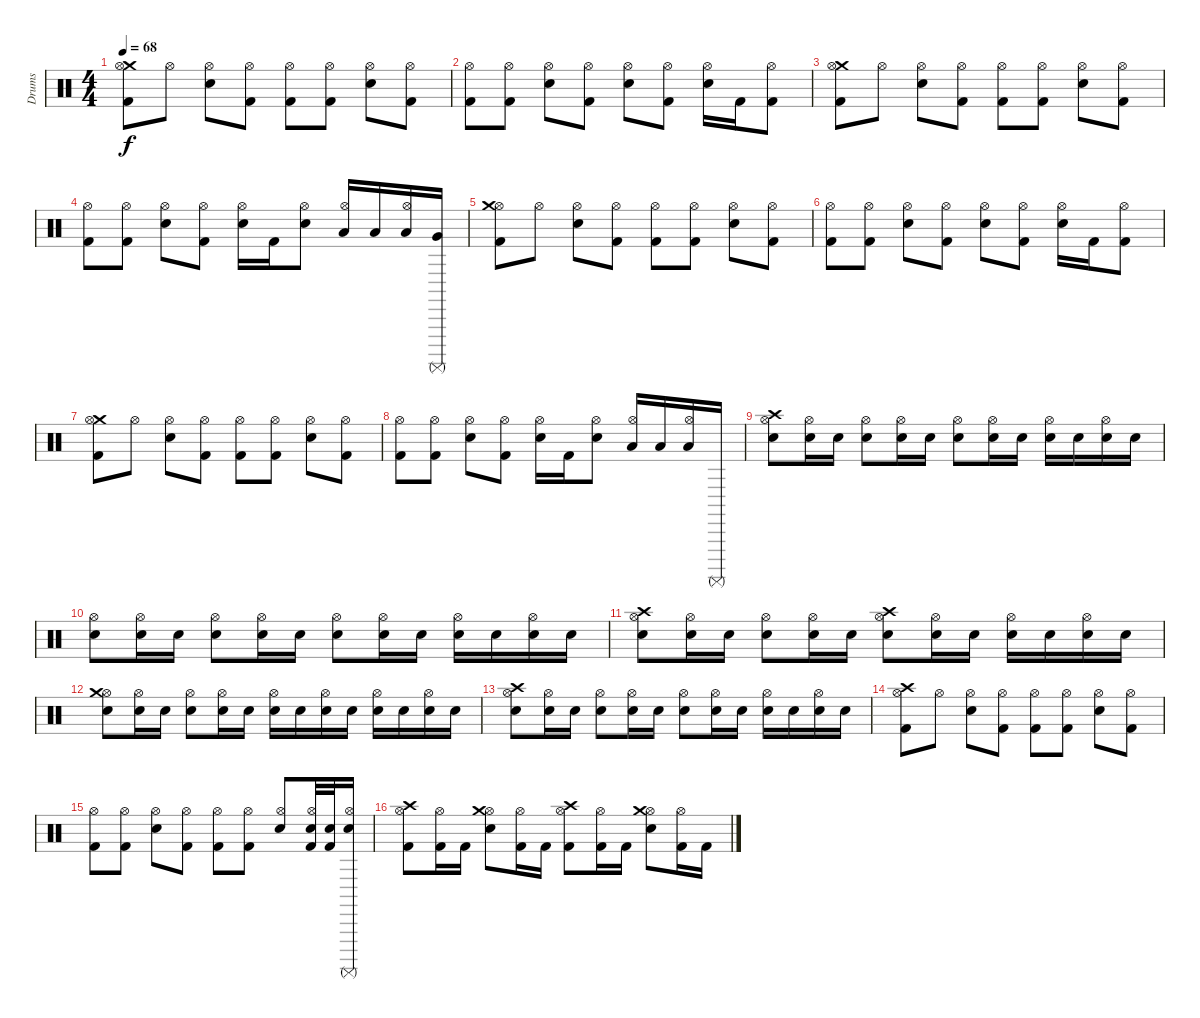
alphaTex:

\track ("Drums" "Drums") {instrument percussion}
\staff {score}
\articulation defaults
\ts (4 4)
\tempo 68
\clef neutral
\ks c
("Kick (hit) 2" "Crash medium (hit)" "Hi-Hat (open)").8{dy f} "Hi-Hat (open)".8 ("Snare (hit) 2" "Hi-Hat (open)").8 ("Kick (hit) 2" "Hi-Hat (open)").8 ("Kick (hit) 2" "Hi-Hat (open)").8 ("Kick (hit) 2" "Hi-Hat (open)").8 ("Snare (hit) 2" "Hi-Hat (open)").8 ("Kick (hit) 2" "Hi-Hat (open)").8 |
("Kick (hit) 2" "Hi-Hat (open)").8 ("Kick (hit) 2" "Hi-Hat (open)").8 ("Snare (hit) 2" "Hi-Hat (open)").8 ("Kick (hit) 2" "Hi-Hat (open)").8 ("Snare (hit) 2" "Hi-Hat (open)").8 ("Kick (hit) 2" "Hi-Hat (open)").8 ("Snare (hit) 2" "Hi-Hat (open)").16 "Kick (hit) 2".16 ("Kick (hit) 2" "Hi-Hat (open)").8 |
("Kick (hit) 2" "Crash medium (hit)" "Hi-Hat (open)").8 "Hi-Hat (open)".8 ("Snare (hit) 2" "Hi-Hat (open)").8 ("Kick (hit) 2" "Hi-Hat (open)").8 ("Kick (hit) 2" "Hi-Hat (open)").8 ("Kick (hit) 2" "Hi-Hat (open)").8 ("Snare (hit) 2" "Hi-Hat (open)").8 ("Kick (hit) 2" "Hi-Hat (open)").8 |
("Kick (hit) 2" "Hi-Hat (open)").8 ("Kick (hit) 2" "Hi-Hat (open)").8 ("Snare (hit) 2" "Hi-Hat (open)").8 ("Kick (hit) 2" "Hi-Hat (open)").8 ("Snare (hit) 2" "Hi-Hat (open)").16 "Kick (hit) 2".16 ("Snare (hit) 2" "Hi-Hat (open)").8 ("Low Tom (hit)" "Hi-Hat (open)").16 "Low Tom (hit)".16 ("Low Tom (hit)" "Hi-Hat (open)").16 ("Very Low Tom (hit)" "Surdo (mute)").16 |
("Kick (hit) 2" "Hi-Hat (open)" "Crash medium (hit)").8 "Hi-Hat (open)".8 ("Snare (hit) 2" "Hi-Hat (open)").8 ("Kick (hit) 2" "Hi-Hat (open)").8 ("Kick (hit) 2" "Hi-Hat (open)").8 ("Kick (hit) 2" "Hi-Hat (open)").8 ("Snare (hit) 2" "Hi-Hat (open)").8 ("Kick (hit) 2" "Hi-Hat (open)").8 |
("Kick (hit) 2" "Hi-Hat (open)").8 ("Kick (hit) 2" "Hi-Hat (open)").8 ("Snare (hit) 2" "Hi-Hat (open)").8 ("Kick (hit) 2" "Hi-Hat (open)").8 ("Snare (hit) 2" "Hi-Hat (open)").8 ("Kick (hit) 2" "Hi-Hat (open)").8 ("Snare (hit) 2" "Hi-Hat (open)").16 "Kick (hit) 2".16 ("Kick (hit) 2" "Hi-Hat (open)").8 |
("Kick (hit) 2" "Crash medium (hit)" "Hi-Hat (open)").8 "Hi-Hat (open)".8 ("Snare (hit) 2" "Hi-Hat (open)").8 ("Kick (hit) 2" "Hi-Hat (open)").8 ("Kick (hit) 2" "Hi-Hat (open)").8 ("Kick (hit) 2" "Hi-Hat (open)").8 ("Snare (hit) 2" "Hi-Hat (open)").8 ("Kick (hit) 2" "Hi-Hat (open)").8 |
("Kick (hit) 2" "Hi-Hat (open)").8 ("Kick (hit) 2" "Hi-Hat (open)").8 ("Snare (hit) 2" "Hi-Hat (open)").8 ("Kick (hit) 2" "Hi-Hat (open)").8 ("Snare (hit) 2" "Hi-Hat (open)").16 "Kick (hit) 2".16 ("Snare (hit) 2" "Hi-Hat (open)").8 ("Low Tom (hit)" "Hi-Hat (open)").16 "Low Tom (hit)".16 ("Low Tom (hit)" "Hi-Hat (open)").16 "Surdo (mute)".16 |
("Snare (hit) 2" "Crash high (hit)" "Hi-Hat (open)").8 ("Snare (hit) 2" "Hi-Hat (open)").16 "Snare (hit) 2".16 ("Snare (hit) 2" "Hi-Hat (open)").8 ("Snare (hit) 2" "Hi-Hat (open)").16 "Snare (hit) 2".16 ("Snare (hit) 2" "Hi-Hat (open)").8 ("Snare (hit) 2" "Hi-Hat (open)").16 "Snare (hit) 2".16 ("Snare (hit) 2" "Hi-Hat (open)").16 "Snare (hit) 2".16 ("Snare (hit) 2" "Hi-Hat (open)").16 "Snare (hit) 2".16 |
("Snare (hit) 2" "Hi-Hat (open)").8 ("Snare (hit) 2" "Hi-Hat (open)").16 "Snare (hit) 2".16 ("Snare (hit) 2" "Hi-Hat (open)").8 ("Snare (hit) 2" "Hi-Hat (open)").16 "Snare (hit) 2".16 ("Snare (hit) 2" "Hi-Hat (open)").8 ("Snare (hit) 2" "Hi-Hat (open)").16 "Snare (hit) 2".16 ("Snare (hit) 2" "Hi-Hat (open)").16 "Snare (hit) 2".16 ("Snare (hit) 2" "Hi-Hat (open)").16 "Snare (hit) 2".16 |
("Snare (hit) 2" "Crash high (hit)" "Hi-Hat (open)").8 ("Snare (hit) 2" "Hi-Hat (open)").16 "Snare (hit) 2".16 ("Snare (hit) 2" "Hi-Hat (open)").8 ("Snare (hit) 2" "Hi-Hat (open)").16 "Snare (hit) 2".16 ("Snare (hit) 2" "Hi-Hat (open)" "Crash high (hit)").8 ("Snare (hit) 2" "Hi-Hat (open)").16 "Snare (hit) 2".16 ("Snare (hit) 2" "Hi-Hat (open)").16 "Snare (hit) 2".16 ("Snare (hit) 2" "Hi-Hat (open)").16 "Snare (hit) 2".16 |
("Snare (hit) 2" "Hi-Hat (open)" "Crash medium (hit)").8 ("Snare (hit) 2" "Hi-Hat (open)").16 "Snare (hit) 2".16 ("Snare (hit) 2" "Hi-Hat (open)").8 ("Snare (hit) 2" "Hi-Hat (open)").16 "Snare (hit) 2".16 ("Snare (hit) 2" "Hi-Hat (open)").16 "Snare (hit) 2".16 ("Snare (hit) 2" "Hi-Hat (open)").16 "Snare (hit) 2".16 ("Snare (hit) 2" "Hi-Hat (open)").16 "Snare (hit) 2".16 ("Snare (hit) 2" "Hi-Hat (open)").16 "Snare (hit) 2".16 |
("Snare (hit) 2" "Crash high (hit)" "Hi-Hat (open)").8 ("Snare (hit) 2" "Hi-Hat (open)").16 "Snare (hit) 2".16 ("Snare (hit) 2" "Hi-Hat (open)").8 ("Snare (hit) 2" "Hi-Hat (open)").16 "Snare (hit) 2".16 ("Snare (hit) 2" "Hi-Hat (open)").8 ("Snare (hit) 2" "Hi-Hat (open)").16 "Snare (hit) 2".16 ("Snare (hit) 2" "Hi-Hat (open)").16 "Snare (hit) 2".16 ("Snare (hit) 2" "Hi-Hat (open)").16 "Snare (hit) 2".16 |
("Kick (hit) 2" "Hi-Hat (open)" "Crash high (hit)").8 "Hi-Hat (open)".8 ("Snare (hit) 2" "Hi-Hat (open)").8 ("Kick (hit) 2" "Hi-Hat (open)").8 ("Kick (hit) 2" "Hi-Hat (open)").8 ("Kick (hit) 2" "Hi-Hat (open)").8 ("Snare (hit) 2" "Hi-Hat (open)").8 ("Kick (hit) 2" "Hi-Hat (open)").8 |
("Kick (hit) 2" "Hi-Hat (open)").8 ("Kick (hit) 2" "Hi-Hat (open)").8 ("Snare (hit) 2" "Hi-Hat (open)").8 ("Kick (hit) 2" "Hi-Hat (open)").8 ("Kick (hit) 2" "Hi-Hat (open)").8 ("Kick (hit) 2" "Hi-Hat (open)").8 ("Snare (hit) 2" "Hi-Hat (open)").8 ("Kick (hit) 2" "Hi-Hat (open)" "Snare (hit) 2").32 ("Kick (hit) 2" "Snare (hit) 2").32 ("Surdo (mute)" "Snare (hit) 2" "Hi-Hat (open)").16 |
("Kick (hit) 2" "Crash high (hit)" "Hi-Hat (open)").8 ("Kick (hit) 2" "Hi-Hat (open)").16 "Kick (hit) 2".16 ("Snare (hit) 2" "Hi-Hat (open)" "Crash medium (hit)").8 ("Kick (hit) 2" "Hi-Hat (open)").16 "Kick (hit) 2".16 ("Kick (hit) 2" "Hi-Hat (open)" "Crash high (hit)").8 ("Kick (hit) 2" "Hi-Hat (open)").16 "Kick (hit) 2".16 ("Snare (hit) 2" "Hi-Hat (open)" "Crash medium (hit)").8 ("Kick (hit) 2" "Hi-Hat (open)").16 "Kick (hit) 2".16
